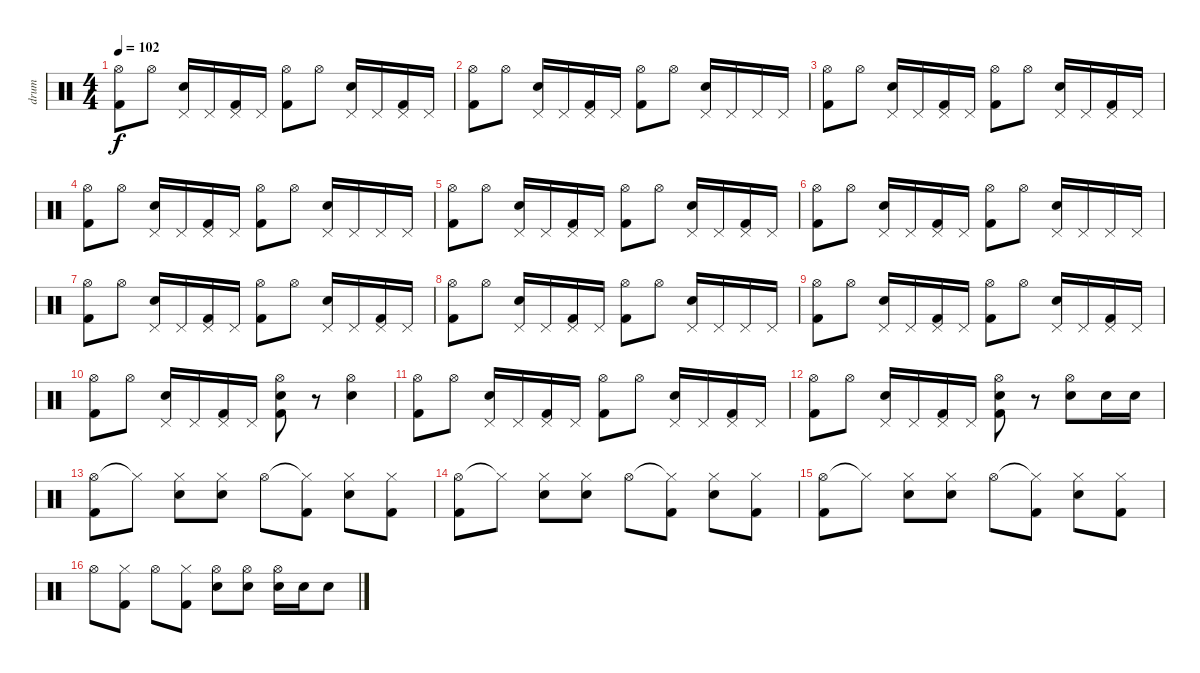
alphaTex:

\track ("drum" "drum") {instrument percussion}
\staff {score}
\articulation defaults
\ts (4 4)
\tempo 102
\clef neutral
\ks c
("Hi-Hat (open)" "Kick (hit) 2").8{dy f} "Hi-Hat (open)".8 ("Pedal Hi-Hat (hit)" "Electric Snare (hit)").16 "Pedal Hi-Hat (hit)".16 ("Pedal Hi-Hat (hit)" "Kick (hit) 2").16 "Pedal Hi-Hat (hit)".16 ("Hi-Hat (open)" "Kick (hit) 2").8 "Hi-Hat (open)".8 ("Pedal Hi-Hat (hit)" "Electric Snare (hit)").16 "Pedal Hi-Hat (hit)".16 ("Pedal Hi-Hat (hit)" "Kick (hit) 2").16 "Pedal Hi-Hat (hit)".16 |
("Hi-Hat (open)" "Kick (hit) 2").8 "Hi-Hat (open)".8 ("Pedal Hi-Hat (hit)" "Electric Snare (hit)").16 "Pedal Hi-Hat (hit)".16 ("Pedal Hi-Hat (hit)" "Kick (hit) 2").16 "Pedal Hi-Hat (hit)".16 ("Hi-Hat (open)" "Kick (hit) 2").8 "Hi-Hat (open)".8 ("Pedal Hi-Hat (hit)" "Electric Snare (hit)").16 "Pedal Hi-Hat (hit)".16 "Pedal Hi-Hat (hit)".16 "Pedal Hi-Hat (hit)".16 |
("Hi-Hat (open)" "Kick (hit) 2").8 "Hi-Hat (open)".8 ("Pedal Hi-Hat (hit)" "Electric Snare (hit)").16 "Pedal Hi-Hat (hit)".16 ("Pedal Hi-Hat (hit)" "Kick (hit) 2").16 "Pedal Hi-Hat (hit)".16 ("Hi-Hat (open)" "Kick (hit) 2").8 "Hi-Hat (open)".8 ("Pedal Hi-Hat (hit)" "Electric Snare (hit)").16 "Pedal Hi-Hat (hit)".16 ("Pedal Hi-Hat (hit)" "Kick (hit) 2").16 "Pedal Hi-Hat (hit)".16 |
("Hi-Hat (open)" "Kick (hit) 2").8 "Hi-Hat (open)".8 ("Pedal Hi-Hat (hit)" "Electric Snare (hit)").16 "Pedal Hi-Hat (hit)".16 ("Pedal Hi-Hat (hit)" "Kick (hit) 2").16 "Pedal Hi-Hat (hit)".16 ("Hi-Hat (open)" "Kick (hit) 2").8 "Hi-Hat (open)".8 ("Pedal Hi-Hat (hit)" "Electric Snare (hit)").16 "Pedal Hi-Hat (hit)".16 "Pedal Hi-Hat (hit)".16 "Pedal Hi-Hat (hit)".16 |
("Hi-Hat (open)" "Kick (hit) 2").8 "Hi-Hat (open)".8 ("Pedal Hi-Hat (hit)" "Electric Snare (hit)").16 "Pedal Hi-Hat (hit)".16 ("Pedal Hi-Hat (hit)" "Kick (hit) 2").16 "Pedal Hi-Hat (hit)".16 ("Hi-Hat (open)" "Kick (hit) 2").8 "Hi-Hat (open)".8 ("Pedal Hi-Hat (hit)" "Electric Snare (hit)").16 "Pedal Hi-Hat (hit)".16 ("Pedal Hi-Hat (hit)" "Kick (hit) 2").16 "Pedal Hi-Hat (hit)".16 |
("Hi-Hat (open)" "Kick (hit) 2").8 "Hi-Hat (open)".8 ("Pedal Hi-Hat (hit)" "Electric Snare (hit)").16 "Pedal Hi-Hat (hit)".16 ("Pedal Hi-Hat (hit)" "Kick (hit) 2").16 "Pedal Hi-Hat (hit)".16 ("Hi-Hat (open)" "Kick (hit) 2").8 "Hi-Hat (open)".8 ("Pedal Hi-Hat (hit)" "Electric Snare (hit)").16 "Pedal Hi-Hat (hit)".16 "Pedal Hi-Hat (hit)".16 "Pedal Hi-Hat (hit)".16 |
("Hi-Hat (open)" "Kick (hit) 2").8 "Hi-Hat (open)".8 ("Pedal Hi-Hat (hit)" "Electric Snare (hit)").16 "Pedal Hi-Hat (hit)".16 ("Pedal Hi-Hat (hit)" "Kick (hit) 2").16 "Pedal Hi-Hat (hit)".16 ("Hi-Hat (open)" "Kick (hit) 2").8 "Hi-Hat (open)".8 ("Pedal Hi-Hat (hit)" "Electric Snare (hit)").16 "Pedal Hi-Hat (hit)".16 ("Pedal Hi-Hat (hit)" "Kick (hit) 2").16 "Pedal Hi-Hat (hit)".16 |
("Hi-Hat (open)" "Kick (hit) 2").8 "Hi-Hat (open)".8 ("Pedal Hi-Hat (hit)" "Electric Snare (hit)").16 "Pedal Hi-Hat (hit)".16 ("Pedal Hi-Hat (hit)" "Kick (hit) 2").16 "Pedal Hi-Hat (hit)".16 ("Hi-Hat (open)" "Kick (hit) 2").8 "Hi-Hat (open)".8 ("Pedal Hi-Hat (hit)" "Electric Snare (hit)").16 "Pedal Hi-Hat (hit)".16 "Pedal Hi-Hat (hit)".16 "Pedal Hi-Hat (hit)".16 |
("Hi-Hat (open)" "Kick (hit) 2").8 "Hi-Hat (open)".8 ("Pedal Hi-Hat (hit)" "Electric Snare (hit)").16 "Pedal Hi-Hat (hit)".16 ("Pedal Hi-Hat (hit)" "Kick (hit) 2").16 "Pedal Hi-Hat (hit)".16 ("Hi-Hat (open)" "Kick (hit) 2").8 "Hi-Hat (open)".8 ("Pedal Hi-Hat (hit)" "Electric Snare (hit)").16 "Pedal Hi-Hat (hit)".16 ("Pedal Hi-Hat (hit)" "Kick (hit) 2").16 "Pedal Hi-Hat (hit)".16 |
("Hi-Hat (open)" "Kick (hit) 2").8 "Hi-Hat (open)".8 ("Pedal Hi-Hat (hit)" "Electric Snare (hit)").16 "Pedal Hi-Hat (hit)".16 ("Pedal Hi-Hat (hit)" "Kick (hit) 2").16 "Pedal Hi-Hat (hit)".16 ("Hi-Hat (open)" "Electric Snare (hit)" "Kick (hit) 2").8 r.8 ("Hi-Hat (open)" "Electric Snare (hit)").4 |
("Hi-Hat (open)" "Kick (hit) 2").8 "Hi-Hat (open)".8 ("Pedal Hi-Hat (hit)" "Electric Snare (hit)").16 "Pedal Hi-Hat (hit)".16 ("Pedal Hi-Hat (hit)" "Kick (hit) 2").16 "Pedal Hi-Hat (hit)".16 ("Hi-Hat (open)" "Kick (hit) 2").8 "Hi-Hat (open)".8 ("Pedal Hi-Hat (hit)" "Electric Snare (hit)").16 "Pedal Hi-Hat (hit)".16 ("Pedal Hi-Hat (hit)" "Kick (hit) 2").16 "Pedal Hi-Hat (hit)".16 |
("Hi-Hat (open)" "Kick (hit) 2").8 "Hi-Hat (open)".8 ("Pedal Hi-Hat (hit)" "Electric Snare (hit)").16 "Pedal Hi-Hat (hit)".16 ("Pedal Hi-Hat (hit)" "Kick (hit) 2").16 "Pedal Hi-Hat (hit)".16 ("Hi-Hat (open)" "Electric Snare (hit)" "Kick (hit) 2").8 r.8 ("Hi-Hat (open)" "Electric Snare (hit)").8 "Electric Snare (hit)".16 "Electric Snare (hit)".16 |
("Hi-Hat (open)" "Kick (hit) 2").8 "Hi-Hat (closed)"{t}.8 ("Hi-Hat (closed)" "Electric Snare (hit)").8 ("Hi-Hat (closed)" "Electric Snare (hit)").8 "Hi-Hat (open)".8 ("Hi-Hat (closed)"{t} "Kick (hit) 2").8 ("Hi-Hat (closed)" "Electric Snare (hit)").8 ("Hi-Hat (closed)" "Kick (hit) 2").8 |
("Hi-Hat (open)" "Kick (hit) 2").8 "Hi-Hat (closed)"{t}.8 ("Hi-Hat (closed)" "Electric Snare (hit)").8 ("Hi-Hat (closed)" "Electric Snare (hit)").8 "Hi-Hat (open)".8 ("Hi-Hat (closed)"{t} "Kick (hit) 2").8 ("Hi-Hat (closed)" "Electric Snare (hit)").8 ("Hi-Hat (closed)" "Kick (hit) 2").8 |
("Hi-Hat (open)" "Kick (hit) 2").8 "Hi-Hat (closed)"{t}.8 ("Hi-Hat (closed)" "Electric Snare (hit)").8 ("Hi-Hat (closed)" "Electric Snare (hit)").8 "Hi-Hat (open)".8 ("Hi-Hat (closed)"{t} "Kick (hit) 2").8 ("Hi-Hat (closed)" "Electric Snare (hit)").8 ("Hi-Hat (closed)" "Kick (hit) 2").8 |
"Hi-Hat (open)".8 ("Hi-Hat (closed)" "Kick (hit) 2").8 "Hi-Hat (open)".8 ("Hi-Hat (closed)" "Kick (hit) 2").8 ("Hi-Hat (open)" "Electric Snare (hit)").8 ("Hi-Hat (open)" "Electric Snare (hit)").8 ("Hi-Hat (open)" "Electric Snare (hit)").16 "Electric Snare (hit)".16 "Electric Snare (hit)".8
